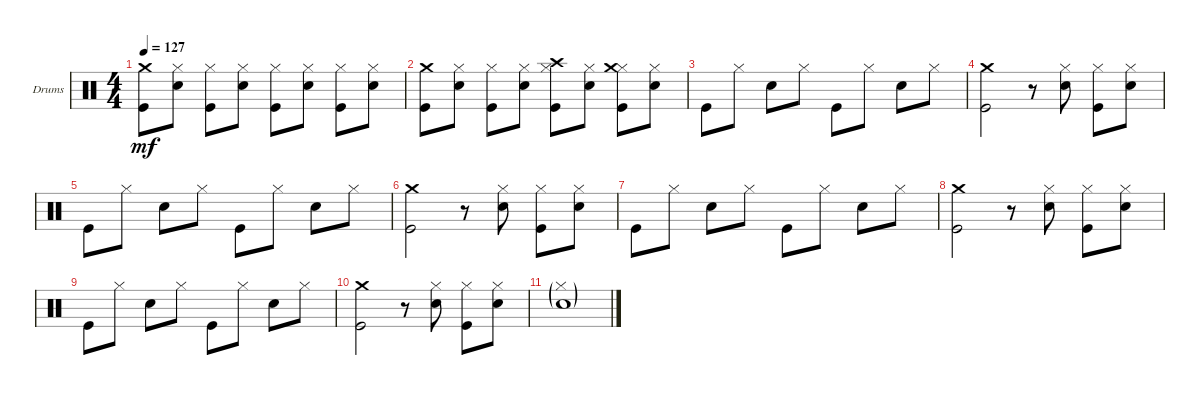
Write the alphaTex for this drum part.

\defaultSystemsLayout 4
\bracketExtendMode groupsimilarinstruments
\firstSystemTrackNameOrientation horizontal
\otherSystemsTrackNameOrientation horizontal
\track ("Е. Кулаков" "Drums") {instrument percussion}
\staff {score}
\articulation defaults
\ts (4 4)
\tempo 127
\clef neutral
\ks c
("Kick (hit)" "Crash medium (hit)").8{dy mf} ("Snare (hit) 2" "Hi-Hat (closed)").8 ("Kick (hit)" "Hi-Hat (closed)").8 ("Snare (hit) 2" "Hi-Hat (closed)").8 ("Kick (hit)" "Hi-Hat (closed)").8 ("Snare (hit) 2" "Hi-Hat (closed)").8 ("Kick (hit)" "Hi-Hat (closed)").8 ("Snare (hit) 2" "Hi-Hat (closed)").8 |
("Kick (hit)" "Crash medium (hit)").8 ("Snare (hit) 2" "Hi-Hat (closed)").8 ("Kick (hit)" "Hi-Hat (closed)").8 ("Snare (hit) 2" "Hi-Hat (closed)").8 ("Kick (hit)" "Hi-Hat (closed)" "Crash high (hit)").8 ("Snare (hit) 2" "Hi-Hat (closed)").8 ("Kick (hit)" "Hi-Hat (closed)" "Crash medium (hit)").8 ("Snare (hit) 2" "Hi-Hat (closed)").8 |
"Kick (hit)".8 "Hi-Hat (closed)".8 "Snare (hit) 2".8 "Hi-Hat (closed)".8 "Kick (hit)".8 "Hi-Hat (closed)".8 "Snare (hit) 2".8 "Hi-Hat (closed)".8 |
("Kick (hit)" "Crash medium (hit)").2 r.8 ("Snare (hit) 2" "Hi-Hat (closed)").8 ("Kick (hit)" "Hi-Hat (closed)").8 ("Snare (hit) 2" "Hi-Hat (closed)").8 |
"Kick (hit)".8 "Hi-Hat (closed)".8 "Snare (hit) 2".8 "Hi-Hat (closed)".8 "Kick (hit)".8 "Hi-Hat (closed)".8 "Snare (hit) 2".8 "Hi-Hat (closed)".8 |
("Kick (hit)" "Crash medium (hit)").2 r.8 ("Snare (hit) 2" "Hi-Hat (closed)").8 ("Kick (hit)" "Hi-Hat (closed)").8 ("Snare (hit) 2" "Hi-Hat (closed)").8 |
"Kick (hit)".8 "Hi-Hat (closed)".8 "Snare (hit) 2".8 "Hi-Hat (closed)".8 "Kick (hit)".8 "Hi-Hat (closed)".8 "Snare (hit) 2".8 "Hi-Hat (closed)".8 |
("Kick (hit)" "Crash medium (hit)").2 r.8 ("Snare (hit) 2" "Hi-Hat (closed)").8 ("Kick (hit)" "Hi-Hat (closed)").8 ("Snare (hit) 2" "Hi-Hat (closed)").8 |
"Kick (hit)".8 "Hi-Hat (closed)".8 "Snare (hit) 2".8 "Hi-Hat (closed)".8 "Kick (hit)".8 "Hi-Hat (closed)".8 "Snare (hit) 2".8 "Hi-Hat (closed)".8 |
("Kick (hit)" "Crash medium (hit)").2 r.8 ("Snare (hit) 2" "Hi-Hat (closed)").8 ("Kick (hit)" "Hi-Hat (closed)").8 ("Snare (hit) 2" "Hi-Hat (closed)").8 |
\scale
0.333333 ("Snare (hit) 2"{g} "Hi-Hat (closed)"{g}).1
